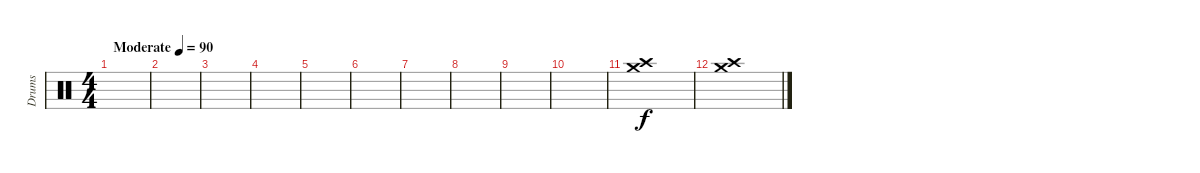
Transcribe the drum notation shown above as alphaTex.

\track ("Drums" "Drums") {instrument percussion}
\staff {score}
\articulation defaults
\ts (4 4)
\tempo (90 "Moderate")
\clef neutral
\ks c
|
|
|
|
|
|
|
|
|
|
("Crash medium (hit)" "Crash high (hit)").1 |
("Crash medium (hit)" "Crash high (hit)").1
